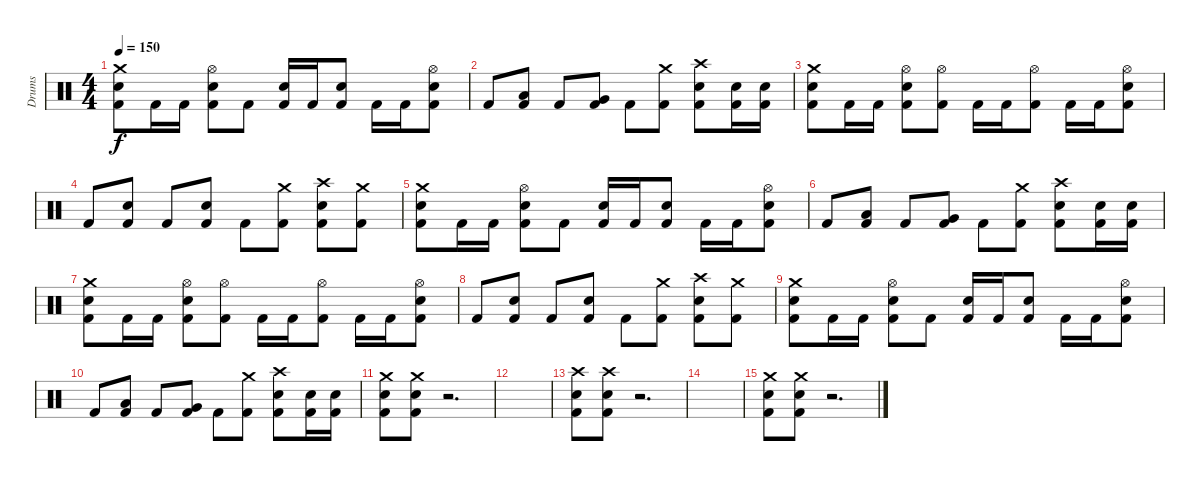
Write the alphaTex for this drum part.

\track ("Drums" "Drums") {instrument percussion}
\staff {score}
\articulation defaults
\ts (4 4)
\tempo 150
\clef neutral
\ks c
("Crash medium (hit)" "Snare (hit) 2" "Kick (hit) 2").8{dy f} "Kick (hit) 2".16 "Kick (hit) 2".16 ("Hi-Hat (open)" "Snare (hit) 2" "Kick (hit) 2").8 "Kick (hit) 2".8 ("Snare (hit) 2" "Kick (hit) 2").16 "Kick (hit) 2".16 ("Snare (hit) 2" "Kick (hit) 2").8 "Kick (hit) 2".16 "Kick (hit) 2".16 ("Hi-Hat (open)" "Snare (hit) 2" "Kick (hit) 2").8 |
"Kick (hit) 2".8 ("Low Tom (hit)" "Kick (hit) 2").8 "Kick (hit) 2".8 ("Very Low Tom (hit)" "Kick (hit) 2").8 "Kick (hit) 2".8 ("Crash medium (hit)" "Kick (hit) 2").8 ("Crash high (hit)" "Snare (hit) 2" "Kick (hit) 2").8 ("Snare (hit) 2" "Kick (hit) 2").16 ("Snare (hit) 2" "Kick (hit) 2").16 |
("Crash medium (hit)" "Snare (hit) 2" "Kick (hit) 2").8 "Kick (hit) 2".16 "Kick (hit) 2".16 ("Hi-Hat (open)" "Snare (hit) 2" "Kick (hit) 2").8 ("Hi-Hat (open)" "Kick (hit) 2").8 "Kick (hit) 2".16 "Kick (hit) 2".16 ("Hi-Hat (open)" "Kick (hit) 2").8 "Kick (hit) 2".16 "Kick (hit) 2".16 ("Hi-Hat (open)" "Snare (hit) 2" "Kick (hit) 2").8 |
"Kick (hit) 2".8 ("Snare (hit) 2" "Kick (hit) 2").8 "Kick (hit) 2".8 ("Snare (hit) 2" "Kick (hit) 2").8 "Kick (hit) 2".8 ("Crash medium (hit)" "Kick (hit) 2").8 ("Crash high (hit)" "Snare (hit) 2" "Kick (hit) 2").8 ("Crash medium (hit)" "Kick (hit) 2").8 |
("Crash medium (hit)" "Snare (hit) 2" "Kick (hit) 2").8 "Kick (hit) 2".16 "Kick (hit) 2".16 ("Hi-Hat (open)" "Snare (hit) 2" "Kick (hit) 2").8 "Kick (hit) 2".8 ("Snare (hit) 2" "Kick (hit) 2").16 "Kick (hit) 2".16 ("Snare (hit) 2" "Kick (hit) 2").8 "Kick (hit) 2".16 "Kick (hit) 2".16 ("Hi-Hat (open)" "Snare (hit) 2" "Kick (hit) 2").8 |
"Kick (hit) 2".8 ("Low Tom (hit)" "Kick (hit) 2").8 "Kick (hit) 2".8 ("Very Low Tom (hit)" "Kick (hit) 2").8 "Kick (hit) 2".8 ("Crash medium (hit)" "Kick (hit) 2").8 ("Crash high (hit)" "Snare (hit) 2" "Kick (hit) 2").8 ("Snare (hit) 2" "Kick (hit) 2").16 ("Snare (hit) 2" "Kick (hit) 2").16 |
("Crash medium (hit)" "Snare (hit) 2" "Kick (hit) 2").8 "Kick (hit) 2".16 "Kick (hit) 2".16 ("Hi-Hat (open)" "Snare (hit) 2" "Kick (hit) 2").8 ("Hi-Hat (open)" "Kick (hit) 2").8 "Kick (hit) 2".16 "Kick (hit) 2".16 ("Hi-Hat (open)" "Kick (hit) 2").8 "Kick (hit) 2".16 "Kick (hit) 2".16 ("Hi-Hat (open)" "Snare (hit) 2" "Kick (hit) 2").8 |
"Kick (hit) 2".8 ("Snare (hit) 2" "Kick (hit) 2").8 "Kick (hit) 2".8 ("Snare (hit) 2" "Kick (hit) 2").8 "Kick (hit) 2".8 ("Crash medium (hit)" "Kick (hit) 2").8 ("Crash high (hit)" "Snare (hit) 2" "Kick (hit) 2").8 ("Crash medium (hit)" "Kick (hit) 2").8 |
("Crash medium (hit)" "Snare (hit) 2" "Kick (hit) 2").8 "Kick (hit) 2".16 "Kick (hit) 2".16 ("Hi-Hat (open)" "Snare (hit) 2" "Kick (hit) 2").8 "Kick (hit) 2".8 ("Snare (hit) 2" "Kick (hit) 2").16 "Kick (hit) 2".16 ("Snare (hit) 2" "Kick (hit) 2").8 "Kick (hit) 2".16 "Kick (hit) 2".16 ("Hi-Hat (open)" "Snare (hit) 2" "Kick (hit) 2").8 |
"Kick (hit) 2".8 ("Low Tom (hit)" "Kick (hit) 2").8 "Kick (hit) 2".8 ("Very Low Tom (hit)" "Kick (hit) 2").8 "Kick (hit) 2".8 ("Crash medium (hit)" "Kick (hit) 2").8 ("Crash high (hit)" "Snare (hit) 2" "Kick (hit) 2").8 ("Snare (hit) 2" "Kick (hit) 2").16 ("Snare (hit) 2" "Kick (hit) 2").16 |
("Crash medium (hit)" "Snare (hit) 2" "Kick (hit) 2").8 ("Crash medium (hit)" "Snare (hit) 2" "Kick (hit) 2").8 r.2{d} |
|
("Crash high (hit)" "Snare (hit) 2" "Kick (hit) 2").8 ("Crash high (hit)" "Snare (hit) 2" "Kick (hit) 2").8 r.2{d} |
|
("Crash medium (hit)" "Snare (hit) 2" "Kick (hit) 2").8 ("Crash medium (hit)" "Snare (hit) 2" "Kick (hit) 2").8 r.2{d}
